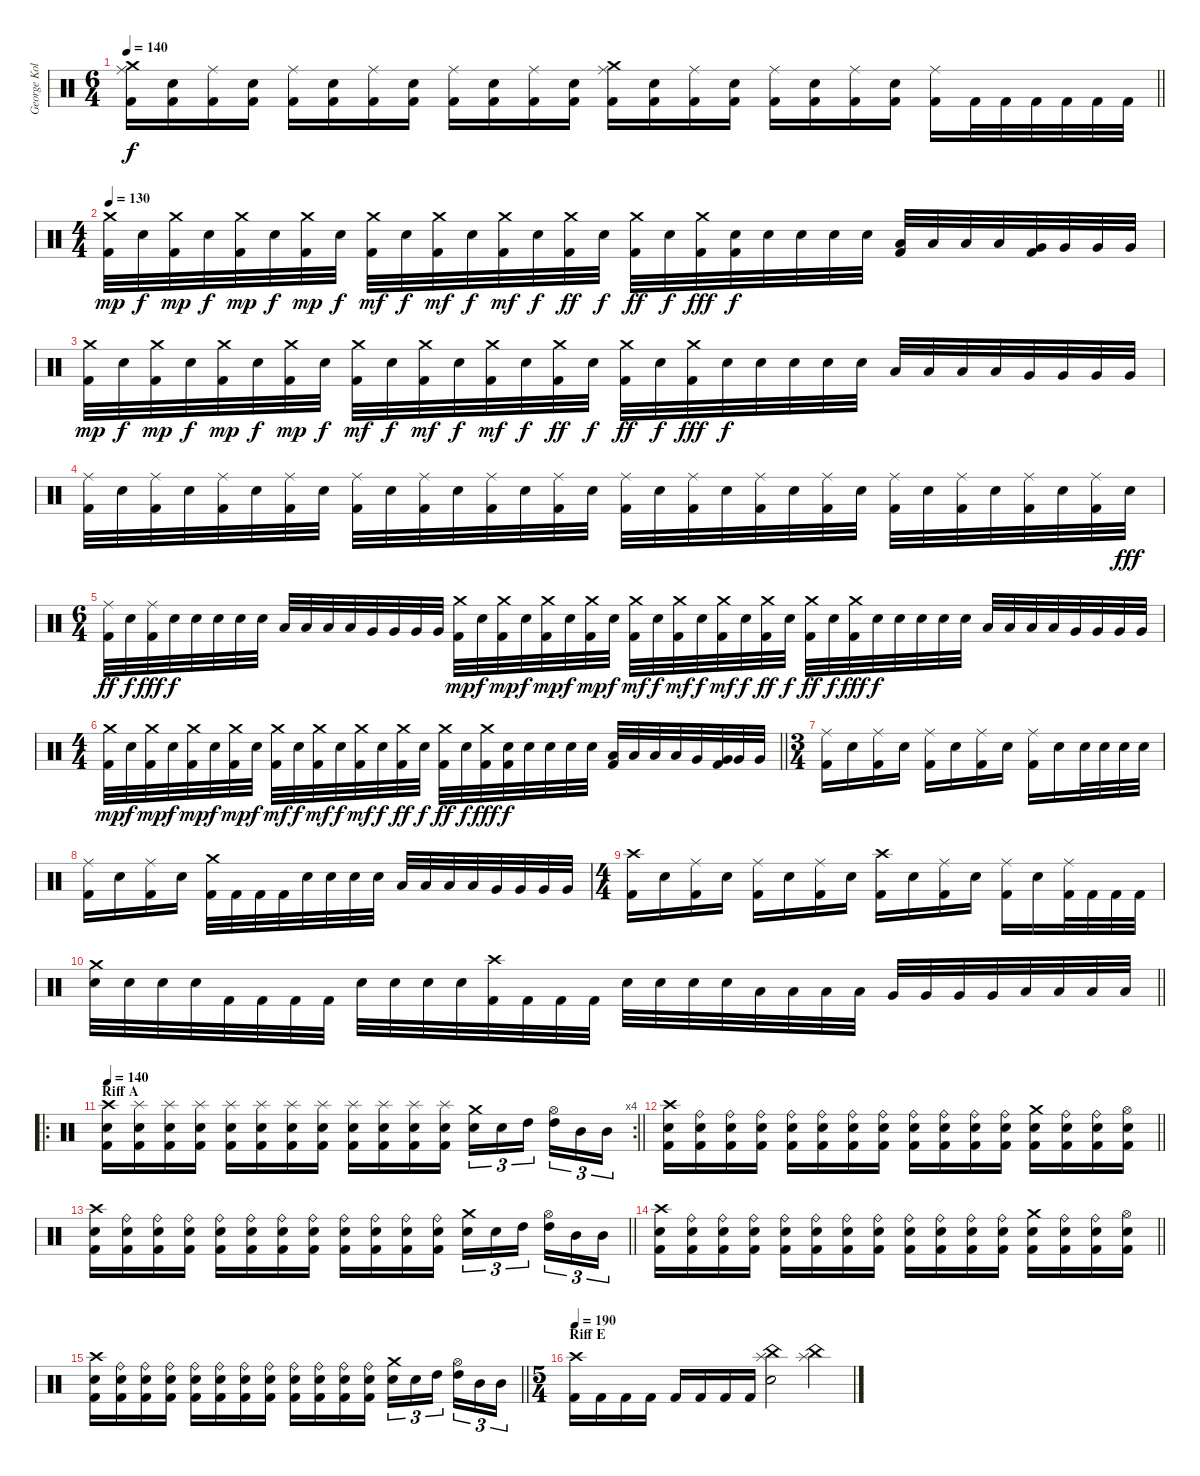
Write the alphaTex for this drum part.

\track ("George Kollias [Equill]" "George Kol") {instrument percussion}
\staff {score}
\articulation defaults
\ts (6 4)
\tempo 140
\clef neutral
\barLineRight lightlight
\ks c
("Crash medium (hit)" "Ride (middle)" "Kick (hit) 2").16{dy f} ("Electric Snare (hit)" "Kick (hit) 2").16 ("Ride (middle)" "Kick (hit) 2").16 ("Electric Snare (hit)" "Kick (hit) 2").16 ("Ride (middle)" "Kick (hit) 2").16 ("Electric Snare (hit)" "Kick (hit) 2").16 ("Ride (middle)" "Kick (hit) 2").16 ("Electric Snare (hit)" "Kick (hit) 2").16 ("Ride (middle)" "Kick (hit) 2").16 ("Electric Snare (hit)" "Kick (hit) 2").16 ("Ride (middle)" "Kick (hit) 2").16 ("Electric Snare (hit)" "Kick (hit) 2").16 ("Crash medium (hit)" "Ride (middle)" "Kick (hit) 2").16 ("Electric Snare (hit)" "Kick (hit) 2").16 ("Ride (middle)" "Kick (hit) 2").16 ("Electric Snare (hit)" "Kick (hit) 2").16 ("Ride (middle)" "Kick (hit) 2").16 ("Electric Snare (hit)" "Kick (hit) 2").16 ("Ride (middle)" "Kick (hit) 2").16 ("Electric Snare (hit)" "Kick (hit) 2").16 ("Ride (middle)" "Kick (hit) 2").16 "Kick (hit) 2".32 "Kick (hit) 2".32 "Kick (hit) 2".32 "Kick (hit) 2".32 "Kick (hit) 2".32 "Kick (hit) 2".32 |
\ts (4 4)
\tempo 130
("Crash medium (hit)" "Kick (hit) 2").32{dy mp} "Electric Snare (hit)".32{dy f} ("Crash medium (hit)" "Kick (hit) 2").32{dy mp} "Electric Snare (hit)".32{dy f} ("Crash medium (hit)" "Kick (hit) 2").32{dy mp} "Electric Snare (hit)".32{dy f} ("Crash medium (hit)" "Kick (hit) 2").32{dy mp} "Electric Snare (hit)".32{dy f} ("Crash medium (hit)" "Kick (hit) 2").32{dy mf} "Electric Snare (hit)".32{dy f} ("Crash medium (hit)" "Kick (hit) 2").32{dy mf} "Electric Snare (hit)".32{dy f} ("Crash medium (hit)" "Kick (hit) 2").32{dy mf} "Electric Snare (hit)".32{dy f} ("Crash medium (hit)" "Kick (hit) 2").32{dy ff} "Electric Snare (hit)".32{dy f} ("Crash medium (hit)" "Kick (hit) 2").32{dy ff} "Electric Snare (hit)".32{dy f} ("Crash medium (hit)" "Kick (hit) 2").32{dy fff} ("Electric Snare (hit)" "Kick (hit) 2").32{dy f} "Electric Snare (hit)".32 "Electric Snare (hit)".32 "Electric Snare (hit)".32 "Electric Snare (hit)".32 ("Low Tom (hit)" "Kick (hit) 2").32 "Low Tom (hit)".32 "Low Tom (hit)".32 "Low Tom (hit)".32 ("Very Low Tom (hit)" "Kick (hit) 2").32 "Very Low Tom (hit)".32 "Very Low Tom (hit)".32 "Very Low Tom (hit)".32 |
("Crash medium (hit)" "Kick (hit) 2").32{dy mp} "Electric Snare (hit)".32{dy f} ("Crash medium (hit)" "Kick (hit) 2").32{dy mp} "Electric Snare (hit)".32{dy f} ("Crash medium (hit)" "Kick (hit) 2").32{dy mp} "Electric Snare (hit)".32{dy f} ("Crash medium (hit)" "Kick (hit) 2").32{dy mp} "Electric Snare (hit)".32{dy f} ("Crash medium (hit)" "Kick (hit) 2").32{dy mf} "Electric Snare (hit)".32{dy f} ("Crash medium (hit)" "Kick (hit) 2").32{dy mf} "Electric Snare (hit)".32{dy f} ("Crash medium (hit)" "Kick (hit) 2").32{dy mf} "Electric Snare (hit)".32{dy f} ("Crash medium (hit)" "Kick (hit) 2").32{dy ff} "Electric Snare (hit)".32{dy f} ("Crash medium (hit)" "Kick (hit) 2").32{dy ff} "Electric Snare (hit)".32{dy f} ("Crash medium (hit)" "Kick (hit) 2").32{dy fff} "Electric Snare (hit)".32{dy f} "Electric Snare (hit)".32 "Electric Snare (hit)".32 "Electric Snare (hit)".32 "Electric Snare (hit)".32 "Low Tom (hit)".32 "Low Tom (hit)".32 "Low Tom (hit)".32 "Low Tom (hit)".32 "Very Low Tom (hit)".32 "Very Low Tom (hit)".32 "Very Low Tom (hit)".32 "Very Low Tom (hit)".32 |
("Ride (middle)" "Kick (hit) 2").32 "Electric Snare (hit)".32 ("Ride (middle)" "Kick (hit) 2").32 "Electric Snare (hit)".32 ("Ride (middle)" "Kick (hit) 2").32 "Electric Snare (hit)".32 ("Ride (middle)" "Kick (hit) 2").32 "Electric Snare (hit)".32 ("Ride (middle)" "Kick (hit) 2").32 "Electric Snare (hit)".32 ("Ride (middle)" "Kick (hit) 2").32 "Electric Snare (hit)".32 ("Ride (middle)" "Kick (hit) 2").32 "Electric Snare (hit)".32 ("Ride (middle)" "Kick (hit) 2").32 "Electric Snare (hit)".32 ("Ride (middle)" "Kick (hit) 2").32 "Electric Snare (hit)".32 ("Ride (middle)" "Kick (hit) 2").32 "Electric Snare (hit)".32 ("Ride (middle)" "Kick (hit) 2").32 "Electric Snare (hit)".32 ("Ride (middle)" "Kick (hit) 2").32 "Electric Snare (hit)".32 ("Ride (middle)" "Kick (hit) 2").32 "Electric Snare (hit)".32 ("Ride (middle)" "Kick (hit) 2").32 "Electric Snare (hit)".32 ("Ride (middle)" "Kick (hit) 2").32 "Electric Snare (hit)".32 ("Ride (middle)" "Kick (hit) 2").32 "Electric Snare (hit)".32{dy fff} |
\ts (6 4)
("Ride (middle)" "Kick (hit) 2").32{dy ff} "Electric Snare (hit)".32{dy f} ("Ride (middle)" "Kick (hit) 2").32{dy fff} "Electric Snare (hit)".32{dy f} "Electric Snare (hit)".32 "Electric Snare (hit)".32 "Electric Snare (hit)".32 "Electric Snare (hit)".32 "Low Tom (hit)".32 "Low Tom (hit)".32 "Low Tom (hit)".32 "Low Tom (hit)".32 "Very Low Tom (hit)".32 "Very Low Tom (hit)".32 "Very Low Tom (hit)".32 "Very Low Tom (hit)".32 ("Crash medium (hit)" "Kick (hit) 2").32{dy mp} "Electric Snare (hit)".32{dy f} ("Crash medium (hit)" "Kick (hit) 2").32{dy mp} "Electric Snare (hit)".32{dy f} ("Crash medium (hit)" "Kick (hit) 2").32{dy mp} "Electric Snare (hit)".32{dy f} ("Crash medium (hit)" "Kick (hit) 2").32{dy mp} "Electric Snare (hit)".32{dy f} ("Crash medium (hit)" "Kick (hit) 2").32{dy mf} "Electric Snare (hit)".32{dy f} ("Crash medium (hit)" "Kick (hit) 2").32{dy mf} "Electric Snare (hit)".32{dy f} ("Crash medium (hit)" "Kick (hit) 2").32{dy mf} "Electric Snare (hit)".32{dy f} ("Crash medium (hit)" "Kick (hit) 2").32{dy ff} "Electric Snare (hit)".32{dy f} ("Crash medium (hit)" "Kick (hit) 2").32{dy ff} "Electric Snare (hit)".32{dy f} ("Crash medium (hit)" "Kick (hit) 2").32{dy fff} "Electric Snare (hit)".32{dy f} "Electric Snare (hit)".32 "Electric Snare (hit)".32 "Electric Snare (hit)".32 "Electric Snare (hit)".32 "Low Tom (hit)".32 "Low Tom (hit)".32 "Low Tom (hit)".32 "Low Tom (hit)".32 "Very Low Tom (hit)".32 "Very Low Tom (hit)".32 "Very Low Tom (hit)".32 "Very Low Tom (hit)".32 |
\ts (4 4)
\barLineRight lightlight
("Crash medium (hit)" "Kick (hit) 2").32{dy mp} "Electric Snare (hit)".32{dy f} ("Crash medium (hit)" "Kick (hit) 2").32{dy mp} "Electric Snare (hit)".32{dy f} ("Crash medium (hit)" "Kick (hit) 2").32{dy mp} "Electric Snare (hit)".32{dy f} ("Crash medium (hit)" "Kick (hit) 2").32{dy mp} "Electric Snare (hit)".32{dy f} ("Crash medium (hit)" "Kick (hit) 2").32{dy mf} "Electric Snare (hit)".32{dy f} ("Crash medium (hit)" "Kick (hit) 2").32{dy mf} "Electric Snare (hit)".32{dy f} ("Crash medium (hit)" "Kick (hit) 2").32{dy mf} "Electric Snare (hit)".32{dy f} ("Crash medium (hit)" "Kick (hit) 2").32{dy ff} "Electric Snare (hit)".32{dy f} ("Crash medium (hit)" "Kick (hit) 2").32{dy ff} "Electric Snare (hit)".32{dy f} ("Crash medium (hit)" "Kick (hit) 2").32{dy fff} ("Electric Snare (hit)" "Kick (hit) 2").32{dy f} "Electric Snare (hit)".32 "Electric Snare (hit)".32 "Electric Snare (hit)".32 "Electric Snare (hit)".32 ("Low Tom (hit)" "Kick (hit) 2").32 "Low Tom (hit)".32 "Low Tom (hit)".32 "Low Tom (hit)".32 "Very Low Tom (hit)".32 ("Very Low Tom (hit)" "Kick (hit) 2").32 "Very Low Tom (hit)".32 "Very Low Tom (hit)".32 |
\ts (3 4)
("Ride (middle)" "Kick (hit) 2").16 "Electric Snare (hit)".16 ("Ride (middle)" "Kick (hit) 2").16 "Electric Snare (hit)".16 ("Ride (middle)" "Kick (hit) 2").16 "Electric Snare (hit)".16 ("Ride (middle)" "Kick (hit) 2").16 "Electric Snare (hit)".16 ("Ride (middle)" "Kick (hit) 2").16 "Electric Snare (hit)".16 "Electric Snare (hit)".32 "Electric Snare (hit)".32 "Electric Snare (hit)".32 "Electric Snare (hit)".32 |
("Ride (middle)" "Kick (hit) 2").16 "Electric Snare (hit)".16 ("Ride (middle)" "Kick (hit) 2").16 "Electric Snare (hit)".16 ("Crash medium (hit)" "Kick (hit) 2").32 "Kick (hit) 2".32 "Kick (hit) 2".32 "Kick (hit) 2".32 "Electric Snare (hit)".32 "Electric Snare (hit)".32 "Electric Snare (hit)".32 "Electric Snare (hit)".32 "Low Tom (hit)".32 "Low Tom (hit)".32 "Low Tom (hit)".32 "Low Tom (hit)".32 "Very Low Tom (hit)".32 "Very Low Tom (hit)".32 "Very Low Tom (hit)".32 "Very Low Tom (hit)".32 |
\ts (4 4)
("Crash high (hit)" "Kick (hit) 2").16 "Electric Snare (hit)".16 ("Ride (middle)" "Kick (hit) 2").16 "Electric Snare (hit)".16 ("Ride (middle)" "Kick (hit) 2").16 "Electric Snare (hit)".16 ("Ride (middle)" "Kick (hit) 2").16 "Electric Snare (hit)".16 ("Crash high (hit)" "Kick (hit) 2").16 "Electric Snare (hit)".16 ("Ride (middle)" "Kick (hit) 2").16 "Electric Snare (hit)".16 ("Ride (middle)" "Kick (hit) 2").16 "Electric Snare (hit)".16 ("Ride (middle)" "Kick (hit) 2").32 "Kick (hit) 2".32 "Kick (hit) 2".32 "Kick (hit) 2".32 |
\barLineRight lightlight
("Crash medium (hit)" "Electric Snare (hit)").32 "Electric Snare (hit)".32 "Electric Snare (hit)".32 "Electric Snare (hit)".32 "Kick (hit) 2".32 "Kick (hit) 2".32 "Kick (hit) 2".32 "Kick (hit) 2".32 "Electric Snare (hit)".32 "Electric Snare (hit)".32 "Electric Snare (hit)".32 "Electric Snare (hit)".32 ("Crash high (hit)" "Kick (hit) 2").32 "Kick (hit) 2".32 "Kick (hit) 2".32 "Kick (hit) 2".32 "Electric Snare (hit)".32 "Electric Snare (hit)".32 "Electric Snare (hit)".32 "Electric Snare (hit)".32 "Low Tom (hit)".32 "Low Tom (hit)".32 "Low Tom (hit)".32 "Low Tom (hit)".32 "Very Low Tom (hit)".32 "Very Low Tom (hit)".32 "Very Low Tom (hit)".32 "Very Low Tom (hit)".32 "Low Floor Tom (hit)".32 "Low Floor Tom (hit)".32 "Low Floor Tom (hit)".32 "Low Floor Tom (hit)".32 |
\ro
\rc 4
\section ("" "Riff A")
\tempo 140
\barLineRight lightlight
("Crash high (hit)" "Electric Snare (hit)" "Kick (hit) 2").16 ("Splash (hit)" "Electric Snare (hit)" "Kick (hit) 2").16 ("Splash (hit)" "Electric Snare (hit)" "Kick (hit) 2").16 ("Splash (hit)" "Electric Snare (hit)" "Kick (hit) 2").16 ("Splash (hit)" "Electric Snare (hit)" "Kick (hit) 2").16 ("Splash (hit)" "Electric Snare (hit)" "Kick (hit) 2").16 ("Splash (hit)" "Electric Snare (hit)" "Kick (hit) 2").16 ("Splash (hit)" "Electric Snare (hit)" "Kick (hit) 2").16 ("Splash (hit)" "Electric Snare (hit)" "Kick (hit) 2").16 ("Splash (hit)" "Electric Snare (hit)" "Kick (hit) 2").16 ("Splash (hit)" "Electric Snare (hit)" "Kick (hit) 2").16 ("Splash (hit)" "Electric Snare (hit)" "Kick (hit) 2").16 ("Crash medium (hit)" "Electric Snare (hit)").16{tu (3 2)} "Electric Snare (hit)".16{tu (3 2)} "High Tom (hit)".16{tu (3 2) beam splitsecondary} ("Hi-Hat (open)" "High Tom (hit)").16{tu (3 2)} "Mid Tom (hit)".16{tu (3 2)} "Mid Tom (hit)".16{tu (3 2)} |
\barLineRight lightlight
("Crash high (hit)" "Electric Snare (hit)" "Kick (hit) 2").16 ("Ride (bell)" "Electric Snare (hit)" "Kick (hit) 2").16 ("Ride (bell)" "Electric Snare (hit)" "Kick (hit) 2").16 ("Ride (bell)" "Electric Snare (hit)" "Kick (hit) 2").16 ("Ride (bell)" "Electric Snare (hit)" "Kick (hit) 2").16 ("Ride (bell)" "Electric Snare (hit)" "Kick (hit) 2").16 ("Ride (bell)" "Electric Snare (hit)" "Kick (hit) 2").16 ("Ride (bell)" "Electric Snare (hit)" "Kick (hit) 2").16 ("Ride (bell)" "Electric Snare (hit)" "Kick (hit) 2").16 ("Ride (bell)" "Electric Snare (hit)" "Kick (hit) 2").16 ("Ride (bell)" "Electric Snare (hit)" "Kick (hit) 2").16 ("Ride (bell)" "Electric Snare (hit)" "Kick (hit) 2").16 ("Crash medium (hit)" "Electric Snare (hit)" "Kick (hit) 2").16 ("Ride (bell)" "Electric Snare (hit)" "Kick (hit) 2").16 ("Ride (bell)" "Electric Snare (hit)" "Kick (hit) 2").16 ("Hi-Hat (open)" "Electric Snare (hit)" "Kick (hit) 2").16 |
\barLineRight lightlight
("Crash high (hit)" "Electric Snare (hit)" "Kick (hit) 2").16 ("Ride (bell)" "Electric Snare (hit)" "Kick (hit) 2").16 ("Ride (bell)" "Electric Snare (hit)" "Kick (hit) 2").16 ("Ride (bell)" "Electric Snare (hit)" "Kick (hit) 2").16 ("Ride (bell)" "Electric Snare (hit)" "Kick (hit) 2").16 ("Ride (bell)" "Electric Snare (hit)" "Kick (hit) 2").16 ("Ride (bell)" "Electric Snare (hit)" "Kick (hit) 2").16 ("Ride (bell)" "Electric Snare (hit)" "Kick (hit) 2").16 ("Ride (bell)" "Electric Snare (hit)" "Kick (hit) 2").16 ("Ride (bell)" "Electric Snare (hit)" "Kick (hit) 2").16 ("Ride (bell)" "Electric Snare (hit)" "Kick (hit) 2").16 ("Ride (bell)" "Electric Snare (hit)" "Kick (hit) 2").16 ("Crash medium (hit)" "Electric Snare (hit)").16{tu (3 2)} "Electric Snare (hit)".16{tu (3 2)} "High Tom (hit)".16{tu (3 2) beam splitsecondary} ("Hi-Hat (open)" "High Tom (hit)").16{tu (3 2)} "Mid Tom (hit)".16{tu (3 2)} "Mid Tom (hit)".16{tu (3 2)} |
\barLineRight lightlight
("Crash high (hit)" "Electric Snare (hit)" "Kick (hit) 2").16 ("Ride (bell)" "Electric Snare (hit)" "Kick (hit) 2").16 ("Ride (bell)" "Electric Snare (hit)" "Kick (hit) 2").16 ("Ride (bell)" "Electric Snare (hit)" "Kick (hit) 2").16 ("Ride (bell)" "Electric Snare (hit)" "Kick (hit) 2").16 ("Ride (bell)" "Electric Snare (hit)" "Kick (hit) 2").16 ("Ride (bell)" "Electric Snare (hit)" "Kick (hit) 2").16 ("Ride (bell)" "Electric Snare (hit)" "Kick (hit) 2").16 ("Ride (bell)" "Electric Snare (hit)" "Kick (hit) 2").16 ("Ride (bell)" "Electric Snare (hit)" "Kick (hit) 2").16 ("Ride (bell)" "Electric Snare (hit)" "Kick (hit) 2").16 ("Ride (bell)" "Electric Snare (hit)" "Kick (hit) 2").16 ("Crash medium (hit)" "Electric Snare (hit)" "Kick (hit) 2").16 ("Ride (bell)" "Electric Snare (hit)" "Kick (hit) 2").16 ("Ride (bell)" "Electric Snare (hit)" "Kick (hit) 2").16 ("Hi-Hat (open)" "Electric Snare (hit)" "Kick (hit) 2").16 |
\barLineRight lightlight
("Crash high (hit)" "Electric Snare (hit)" "Kick (hit) 2").16 ("Ride (bell)" "Electric Snare (hit)" "Kick (hit) 2").16 ("Ride (bell)" "Electric Snare (hit)" "Kick (hit) 2").16 ("Ride (bell)" "Electric Snare (hit)" "Kick (hit) 2").16 ("Ride (bell)" "Electric Snare (hit)" "Kick (hit) 2").16 ("Ride (bell)" "Electric Snare (hit)" "Kick (hit) 2").16 ("Ride (bell)" "Electric Snare (hit)" "Kick (hit) 2").16 ("Ride (bell)" "Electric Snare (hit)" "Kick (hit) 2").16 ("Ride (bell)" "Electric Snare (hit)" "Kick (hit) 2").16 ("Ride (bell)" "Electric Snare (hit)" "Kick (hit) 2").16 ("Ride (bell)" "Electric Snare (hit)" "Kick (hit) 2").16 ("Ride (bell)" "Electric Snare (hit)" "Kick (hit) 2").16 ("Crash medium (hit)" "Electric Snare (hit)").16{tu (3 2)} "Electric Snare (hit)".16{tu (3 2)} "High Tom (hit)".16{tu (3 2) beam splitsecondary} ("Hi-Hat (open)" "High Tom (hit)").16{tu (3 2)} "Mid Tom (hit)".16{tu (3 2)} "Mid Tom (hit)".16{tu (3 2)} |
\ts (5 4)
\section ("" "Riff E")
\tempo 190
("Crash high (hit)" "Kick (hit) 2").16 "Kick (hit) 2".16 "Kick (hit) 2".16 "Kick (hit) 2".16 "Kick (hit) 2".16 "Kick (hit) 2".16 "Kick (hit) 2".16 "Kick (hit) 2".16 ("China (hit)" "Splash (hit)" "Electric Snare (hit)").2 ("China (hit)" "Splash (hit)").4
